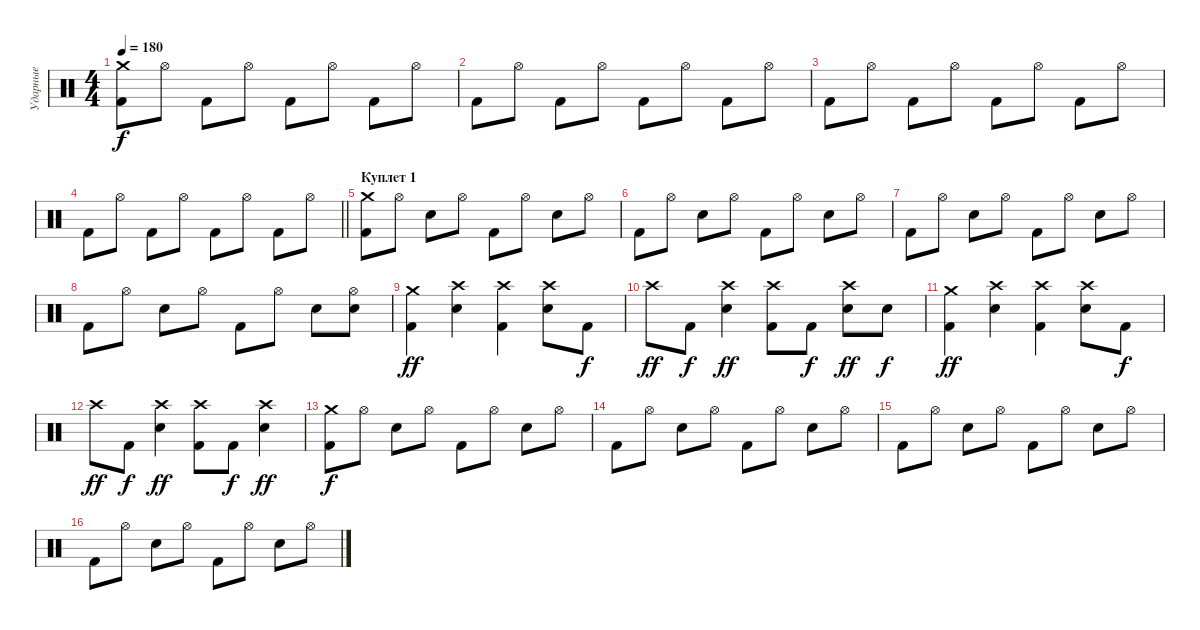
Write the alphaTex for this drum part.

\track ("Ударные" "Ударные") {instrument percussion}
\staff {score}
\articulation defaults
\ts (4 4)
\tempo 180
\clef neutral
\ks c
("Crash medium (hit)" "Kick (hit) 2").8{dy f} "Hi-Hat (open)".8 "Kick (hit) 2".8 "Hi-Hat (open)".8 "Kick (hit) 2".8 "Hi-Hat (open)".8 "Kick (hit) 2".8 "Hi-Hat (open)".8 |
"Kick (hit) 2".8 "Hi-Hat (open)".8 "Kick (hit) 2".8 "Hi-Hat (open)".8 "Kick (hit) 2".8 "Hi-Hat (open)".8 "Kick (hit) 2".8 "Hi-Hat (open)".8 |
"Kick (hit) 2".8 "Hi-Hat (open)".8 "Kick (hit) 2".8 "Hi-Hat (open)".8 "Kick (hit) 2".8 "Hi-Hat (open)".8 "Kick (hit) 2".8 "Hi-Hat (open)".8 |
\barLineRight lightlight "Kick (hit) 2".8 "Hi-Hat (open)".8 "Kick (hit) 2".8 "Hi-Hat (open)".8 "Kick (hit) 2".8 "Hi-Hat (open)".8 "Kick (hit) 2".8 "Hi-Hat (open)".8
|
\section ("" "Куплет 1")
("Crash medium (hit)" "Kick (hit) 2").8 "Hi-Hat (open)".8 "Snare (hit) 2".8 "Hi-Hat (open)".8 "Kick (hit) 2".8 "Hi-Hat (open)".8 "Snare (hit) 2".8 "Hi-Hat (open)".8 |
"Kick (hit) 2".8 "Hi-Hat (open)".8 "Snare (hit) 2".8 "Hi-Hat (open)".8 "Kick (hit) 2".8 "Hi-Hat (open)".8 "Snare (hit) 2".8 "Hi-Hat (open)".8 |
"Kick (hit) 2".8 "Hi-Hat (open)".8 "Snare (hit) 2".8 "Hi-Hat (open)".8 "Kick (hit) 2".8 "Hi-Hat (open)".8 "Snare (hit) 2".8 "Hi-Hat (open)".8 |
"Kick (hit) 2".8 "Hi-Hat (open)".8 "Snare (hit) 2".8 "Hi-Hat (open)".8 "Kick (hit) 2".8 "Hi-Hat (open)".8 "Snare (hit) 2".8 ("Hi-Hat (open)" "Snare (hit) 2").8 |
("Crash medium (hit)" "Kick (hit) 2").4{dy ff} ("Crash high (hit)" "Snare (hit) 2").4 ("Crash high (hit)" "Kick (hit) 2").4 ("Crash high (hit)" "Snare (hit) 2").8 "Kick (hit) 2".8{dy f} |
"Crash high (hit)".8{dy ff} "Kick (hit) 2".8{dy f} ("Crash high (hit)" "Snare (hit) 2").4{dy ff} ("Crash high (hit)" "Kick (hit) 2").8 "Kick (hit) 2".8{dy f} ("Crash high (hit)" "Snare (hit) 2").8{dy ff} "Snare (hit) 2".8{dy f} |
("Crash medium (hit)" "Kick (hit) 2").4{dy ff} ("Crash high (hit)" "Snare (hit) 2").4 ("Crash high (hit)" "Kick (hit) 2").4 ("Crash high (hit)" "Snare (hit) 2").8 "Kick (hit) 2".8{dy f} |
"Crash high (hit)".8{dy ff} "Kick (hit) 2".8{dy f} ("Crash high (hit)" "Snare (hit) 2").4{dy ff} ("Crash high (hit)" "Kick (hit) 2").8 "Kick (hit) 2".8{dy f} ("Crash high (hit)" "Snare (hit) 2").4{dy ff} |
("Crash medium (hit)" "Kick (hit) 2").8{dy f} "Hi-Hat (open)".8 "Snare (hit) 2".8 "Hi-Hat (open)".8 "Kick (hit) 2".8 "Hi-Hat (open)".8 "Snare (hit) 2".8 "Hi-Hat (open)".8 |
"Kick (hit) 2".8 "Hi-Hat (open)".8 "Snare (hit) 2".8 "Hi-Hat (open)".8 "Kick (hit) 2".8 "Hi-Hat (open)".8 "Snare (hit) 2".8 "Hi-Hat (open)".8 |
"Kick (hit) 2".8 "Hi-Hat (open)".8 "Snare (hit) 2".8 "Hi-Hat (open)".8 "Kick (hit) 2".8 "Hi-Hat (open)".8 "Snare (hit) 2".8 "Hi-Hat (open)".8 |
"Kick (hit) 2".8 "Hi-Hat (open)".8 "Snare (hit) 2".8 "Hi-Hat (open)".8 "Kick (hit) 2".8 "Hi-Hat (open)".8 "Snare (hit) 2".8 "Hi-Hat (open)".8
